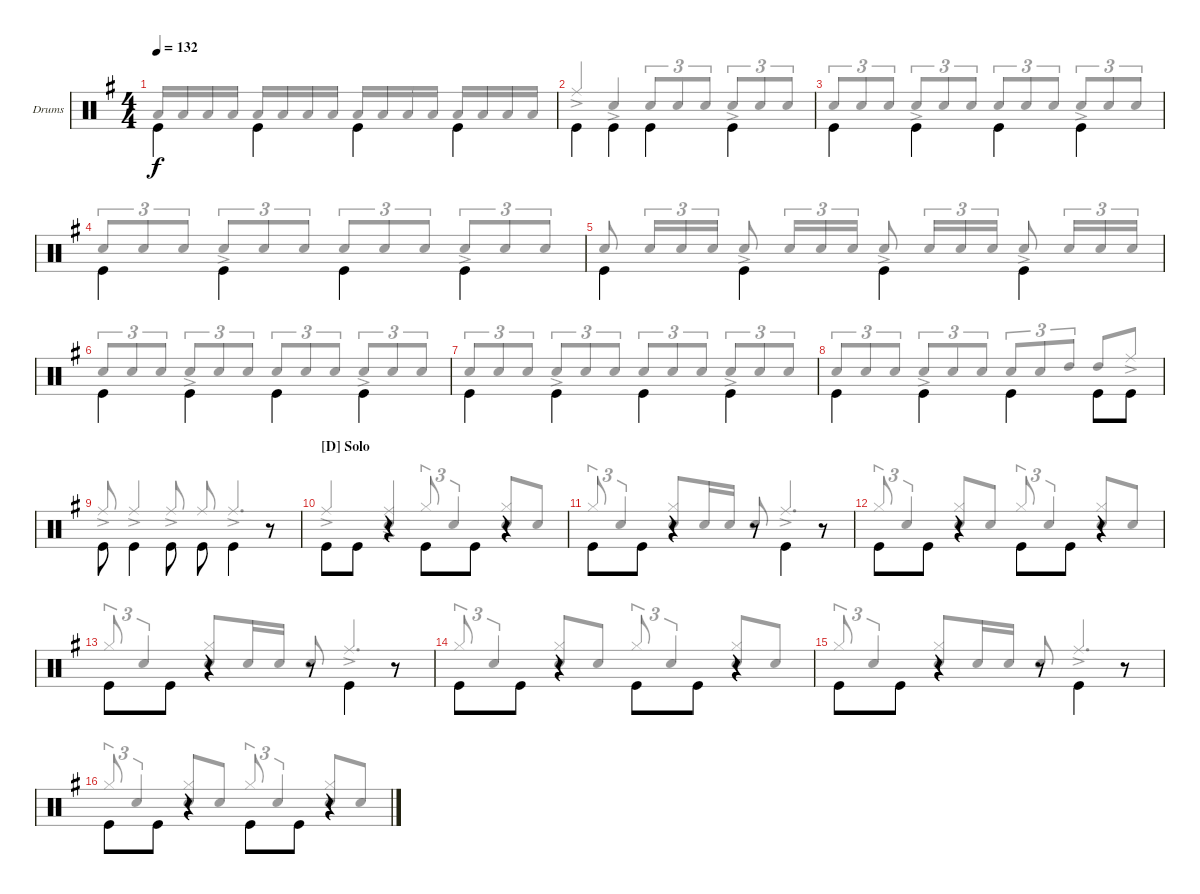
\bracketExtendMode groupsimilarinstruments
\firstSystemTrackNameOrientation horizontal
\otherSystemsTrackNameOrientation horizontal
\track ("Drums" "Drums") {instrument percussion}
\staff {score}
\articulation defaults
\voice
\ts (4 4)
\tempo 132
\clef neutral
\scale
1.04288
\ks g "Kick (hit)".4{dy f beam invert} "Kick (hit)".4{beam invert} "Kick (hit)".4{beam invert} "Kick (hit)".4{beam invert}
|
\scale
0.957125 "Kick (hit)".4{beam invert} "Kick (hit)".4{beam invert} "Kick (hit)".4{beam invert} "Kick (hit)".4{beam invert} |
\scale
1.04288 "Kick (hit)".4{beam invert} "Kick (hit)".4{beam invert} "Kick (hit)".4{beam invert} "Kick (hit)".4{beam invert} |
\scale
0.957125 "Kick (hit)".4{beam invert} "Kick (hit)".4{beam invert} "Kick (hit)".4{beam invert} "Kick (hit)".4{beam invert} |
\scale
1.04288 "Kick (hit)".4{beam invert} "Kick (hit)".4{beam invert} "Kick (hit)".4{beam invert} "Kick (hit)".4{beam invert} |
\scale
0.957125 "Kick (hit)".4{beam invert} "Kick (hit)".4{beam invert} "Kick (hit)".4{beam invert} "Kick (hit)".4{beam invert} |
\scale
1.04288 "Kick (hit)".4{beam invert} "Kick (hit)".4{beam invert} "Kick (hit)".4{beam invert} "Kick (hit)".4{beam invert} |
\scale
0.957125 "Kick (hit)".4{beam invert} "Kick (hit)".4{beam invert} "Kick (hit)".4{beam invert} "Kick (hit)".8{beam invert} "Kick (hit)".8 |
\scale
1.04288 "Kick (hit)".8{beam invert} "Kick (hit)".4{beam invert} "Kick (hit)".8{beam invert} "Kick (hit)".8{beam invert} "Kick (hit)".4{beam invert} r.8 |
\section ("D" "Solo")
\scale
0.957125 "Kick (hit)".8{beam invert} "Kick (hit)".8 r.4 "Kick (hit)".8{beam invert} "Kick (hit)".8 r.4 |
\scale
1.04288 "Kick (hit)".8{beam invert} "Kick (hit)".8 r.4 r.8 "Kick (hit)".4{beam invert} r.8 |
\scale
0.957125 "Kick (hit)".8{beam invert} "Kick (hit)".8 r.4 "Kick (hit)".8{beam invert} "Kick (hit)".8 r.4 |
\scale
1.04288 "Kick (hit)".8{beam invert} "Kick (hit)".8 r.4 r.8 "Kick (hit)".4{beam invert} r.8 |
\scale
0.957125 "Kick (hit)".8{beam invert} "Kick (hit)".8 r.4 "Kick (hit)".8{beam invert} "Kick (hit)".8 r.4 |
\scale
1.04288 "Kick (hit)".8{beam invert} "Kick (hit)".8 r.4 r.8 "Kick (hit)".4{beam invert} r.8 |
\scale
0.957125 "Kick (hit)".8{beam invert} "Kick (hit)".8 r.4 "Kick (hit)".8{beam invert} "Kick (hit)".8 r.4
\voice
\clef neutral
\ottava regular
\simile none
\scale
1.04288
\ks g "Low Tom (hit)".16{dy f beam invert} "Low Tom (hit)".16 "Low Tom (hit)".16 "Low Tom (hit)".16 "Low Tom (hit)".16{beam invert} "Low Tom (hit)".16 "Low Tom (hit)".16 "Low Tom (hit)".16 "Low Tom (hit)".16{beam invert} "Low Tom (hit)".16 "Low Tom (hit)".16 "Low Tom (hit)".16 "Low Tom (hit)".16{beam invert} "Low Tom (hit)".16 "Low Tom (hit)".16 "Low Tom (hit)".16
|
\scale
0.957125 "Ride (middle)"{ac}.4{beam invert} "Snare (hit) 2"{ac}.4{beam invert} "Snare (hit) 2".8{tu (3 2) beam invert} "Snare (hit) 2".8{tu (3 2) beam invert} "Snare (hit) 2".8{tu (3 2) beam invert} "Snare (hit) 2"{ac}.8{tu (3 2) beam invert} "Snare (hit) 2".8{tu (3 2) beam invert} "Snare (hit) 2".8{tu (3 2) beam invert} |
\scale
1.04288 "Snare (hit) 2".8{tu (3 2) beam invert} "Snare (hit) 2".8{tu (3 2) beam invert} "Snare (hit) 2".8{tu (3 2) beam invert} "Snare (hit) 2"{ac}.8{tu (3 2) beam invert} "Snare (hit) 2".8{tu (3 2) beam invert} "Snare (hit) 2".8{tu (3 2) beam invert} "Snare (hit) 2".8{tu (3 2) beam invert} "Snare (hit) 2".8{tu (3 2) beam invert} "Snare (hit) 2".8{tu (3 2) beam invert} "Snare (hit) 2"{ac}.8{tu (3 2) beam invert} "Snare (hit) 2".8{tu (3 2) beam invert} "Snare (hit) 2".8{tu (3 2) beam invert} |
\scale
0.957125 "Snare (hit) 2".8{tu (3 2) beam invert} "Snare (hit) 2".8{tu (3 2) beam invert} "Snare (hit) 2".8{tu (3 2) beam invert} "Snare (hit) 2"{ac}.8{tu (3 2) beam invert} "Snare (hit) 2".8{tu (3 2) beam invert} "Snare (hit) 2".8{tu (3 2) beam invert} "Snare (hit) 2".8{tu (3 2) beam invert} "Snare (hit) 2".8{tu (3 2) beam invert} "Snare (hit) 2".8{tu (3 2) beam invert} "Snare (hit) 2"{ac}.8{tu (3 2) beam invert} "Snare (hit) 2".8{tu (3 2) beam invert} "Snare (hit) 2".8{tu (3 2) beam invert} |
\scale
1.04288 "Snare (hit) 2".8{beam invert} "Snare (hit) 2".16{tu (3 2) beam invert} "Snare (hit) 2".16{tu (3 2) beam invert} "Snare (hit) 2".16{tu (3 2) beam invert} "Snare (hit) 2"{ac}.8{beam invert} "Snare (hit) 2".16{tu (3 2) beam invert} "Snare (hit) 2".16{tu (3 2) beam invert} "Snare (hit) 2".16{tu (3 2) beam invert} "Snare (hit) 2"{ac}.8{beam invert} "Snare (hit) 2".16{tu (3 2) beam invert} "Snare (hit) 2".16{tu (3 2) beam invert} "Snare (hit) 2".16{tu (3 2) beam invert} "Snare (hit) 2"{ac}.8{beam invert} "Snare (hit) 2".16{tu (3 2) beam invert} "Snare (hit) 2".16{tu (3 2) beam invert} "Snare (hit) 2".16{tu (3 2) beam invert} |
\scale
0.957125 "Snare (hit) 2".8{tu (3 2) beam invert} "Snare (hit) 2".8{tu (3 2) beam invert} "Snare (hit) 2".8{tu (3 2) beam invert} "Snare (hit) 2"{ac}.8{tu (3 2) beam invert} "Snare (hit) 2".8{tu (3 2) beam invert} "Snare (hit) 2".8{tu (3 2) beam invert} "Snare (hit) 2".8{tu (3 2) beam invert} "Snare (hit) 2".8{tu (3 2) beam invert} "Snare (hit) 2".8{tu (3 2) beam invert} "Snare (hit) 2"{ac}.8{tu (3 2) beam invert} "Snare (hit) 2".8{tu (3 2) beam invert} "Snare (hit) 2".8{tu (3 2) beam invert} |
\scale
1.04288 "Snare (hit) 2".8{tu (3 2) beam invert} "Snare (hit) 2".8{tu (3 2) beam invert} "Snare (hit) 2".8{tu (3 2) beam invert} "Snare (hit) 2"{ac}.8{tu (3 2) beam invert} "Snare (hit) 2".8{tu (3 2) beam invert} "Snare (hit) 2".8{tu (3 2) beam invert} "Snare (hit) 2".8{tu (3 2) beam invert} "Snare (hit) 2".8{tu (3 2) beam invert} "Snare (hit) 2".8{tu (3 2) beam invert} "Snare (hit) 2"{ac}.8{tu (3 2) beam invert} "Snare (hit) 2".8{tu (3 2) beam invert} "Snare (hit) 2".8{tu (3 2) beam invert} |
\scale
0.957125 "Snare (hit) 2".8{tu (3 2) beam invert} "Snare (hit) 2".8{tu (3 2) beam invert} "Snare (hit) 2".8{tu (3 2) beam invert} "Snare (hit) 2"{ac}.8{tu (3 2) beam invert} "Snare (hit) 2".8{tu (3 2) beam invert} "Snare (hit) 2".8{tu (3 2) beam invert} "Snare (hit) 2".8{tu (3 2) beam invert} "Snare (hit) 2".8{tu (3 2) beam invert} "High Tom (hit)".8{tu (3 2) beam invert} "High Tom (hit)".8{beam invert} "Ride (middle)"{ac}.8 |
\scale
1.04288 "Ride (middle)"{ac}.8{beam invert} "Ride (middle)"{ac}.4{beam invert} "Ride (middle)"{ac}.8{beam invert} "Ride (middle)".8{beam invert} "Ride (middle)"{ac}.4{d beam invert} |
\scale
0.957125 "Ride (middle)"{ac}.4{beam invert} ("Snare (hit) 2" "Ride (middle)"{ac}).4{beam invert} "Hi-Hat (closed)".8{tu (3 2) beam invert} "Snare (hit) 2".4{tu (3 2) beam invert} ("Hi-Hat (closed)" "Snare (hit) 2").8{beam invert} "Snare (hit) 2".8 |
\scale
1.04288 "Hi-Hat (closed)".8{tu (3 2) beam invert} "Snare (hit) 2".4{tu (3 2) beam invert} ("Hi-Hat (closed)" "Snare (hit) 2").8{beam invert} "Snare (hit) 2".16 "Snare (hit) 2".16 "Snare (hit) 2".8{beam invert} "Ride (middle)"{ac}.4{d beam invert} |
\scale
0.957125 "Hi-Hat (closed)".8{tu (3 2) beam invert} "Snare (hit) 2".4{tu (3 2) beam invert} ("Hi-Hat (closed)" "Snare (hit) 2").8{beam invert} "Snare (hit) 2".8 "Hi-Hat (closed)".8{tu (3 2) beam invert} "Snare (hit) 2".4{tu (3 2) beam invert} ("Hi-Hat (closed)" "Snare (hit) 2").8{beam invert} "Snare (hit) 2".8 |
\scale
1.04288 "Hi-Hat (closed)".8{tu (3 2) beam invert} "Snare (hit) 2".4{tu (3 2) beam invert} ("Hi-Hat (closed)" "Snare (hit) 2").8{beam invert} "Snare (hit) 2".16 "Snare (hit) 2".16 "Snare (hit) 2".8{beam invert} "Ride (middle)"{ac}.4{d beam invert} |
\scale
0.957125 "Hi-Hat (closed)".8{tu (3 2) beam invert} "Snare (hit) 2".4{tu (3 2) beam invert} ("Hi-Hat (closed)" "Snare (hit) 2").8{beam invert} "Snare (hit) 2".8 "Hi-Hat (closed)".8{tu (3 2) beam invert} "Snare (hit) 2".4{tu (3 2) beam invert} ("Hi-Hat (closed)" "Snare (hit) 2").8{beam invert} "Snare (hit) 2".8 |
\scale
1.04288 "Hi-Hat (closed)".8{tu (3 2) beam invert} "Snare (hit) 2".4{tu (3 2) beam invert} ("Hi-Hat (closed)" "Snare (hit) 2").8{beam invert} "Snare (hit) 2".16 "Snare (hit) 2".16 "Snare (hit) 2".8{beam invert} "Ride (middle)"{ac}.4{d beam invert} |
\scale
0.957125 "Hi-Hat (closed)".8{tu (3 2) beam invert} "Snare (hit) 2".4{tu (3 2) beam invert} ("Hi-Hat (closed)" "Snare (hit) 2").8{beam invert} "Snare (hit) 2".8 "Hi-Hat (closed)".8{tu (3 2) beam invert} "Snare (hit) 2".4{tu (3 2) beam invert} ("Hi-Hat (closed)" "Snare (hit) 2").8{beam invert} "Snare (hit) 2".8
